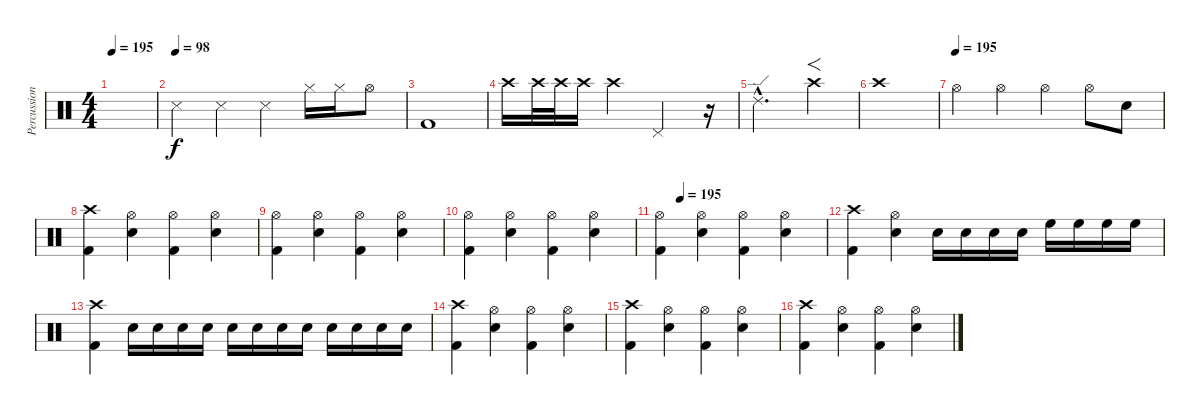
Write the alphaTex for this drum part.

\track ("Percussion" "Percussion") {instrument percussion}
\staff {score}
\articulation defaults
\ts (4 4)
\tempo 195
\clef neutral
\ks c
|
\tempo (98)
"Snare (side stick) 3".4 "Snare (side stick) 3".4 "Snare (side stick) 3".4 "Hi-Hat (closed)".16 "Hi-Hat (closed)".16 "Hi-Hat (open)".8 |
"Kick (hit) 2".1 |
"Crash high (hit)".16 "Crash high (hit)".32 "Crash high (hit)".32 "Crash high (hit)".16 "Crash high (hit)".4 "Pedal Hi-Hat (hit)".2 r.16 |
"Ride (edge) 2"{hac}.2{d} "Crash high (hit)"{tr (49 64)}.4{f} |
"Crash high (hit)".1 |
\tempo (195)
"Hi-Hat (open)".4 "Hi-Hat (open)".4 "Hi-Hat (open)".4 "Hi-Hat (open)".8 "Electric Snare (hit)".8 |
("Crash high (hit)" "Kick (hit) 2").4 ("Hi-Hat (open)" "Electric Snare (hit)").4 ("Hi-Hat (open)" "Kick (hit) 2").4 ("Hi-Hat (open)" "Electric Snare (hit)").4 |
("Hi-Hat (open)" "Kick (hit) 2").4 ("Hi-Hat (open)" "Electric Snare (hit)").4 ("Hi-Hat (open)" "Kick (hit) 2").4 ("Hi-Hat (open)" "Electric Snare (hit)").4 |
("Hi-Hat (open)" "Kick (hit) 2").4 ("Hi-Hat (open)" "Electric Snare (hit)").4 ("Hi-Hat (open)" "Kick (hit) 2").4 ("Hi-Hat (open)" "Electric Snare (hit)").4 |
\tempo (195 0.125)
("Hi-Hat (open)" "Kick (hit) 2").4 ("Hi-Hat (open)" "Electric Snare (hit)").4 ("Hi-Hat (open)" "Kick (hit) 2").4 ("Hi-Hat (open)" "Electric Snare (hit)").4 |
("Crash high (hit)" "Kick (hit) 2").4 ("Hi-Hat (open)" "Electric Snare (hit)").4 "Electric Snare (hit)".16 "Electric Snare (hit)".16 "Electric Snare (hit)".16 "Electric Snare (hit)".16 "High Floor Tom (hit)".16 "High Floor Tom (hit)".16 "High Floor Tom (hit)".16 "High Floor Tom (hit)".16 |
("Crash high (hit)" "Kick (hit) 2").4 "Electric Snare (hit)".16 "Electric Snare (hit)".16 "Electric Snare (hit)".16 "Electric Snare (hit)".16 "Electric Snare (hit)".16 "Electric Snare (hit)".16 "Electric Snare (hit)".16 "Electric Snare (hit)".16 "Electric Snare (hit)".16 "Electric Snare (hit)".16 "Electric Snare (hit)".16 "Electric Snare (hit)".16 |
("Crash high (hit)" "Kick (hit) 2").4 ("Hi-Hat (open)" "Electric Snare (hit)").4 ("Hi-Hat (open)" "Kick (hit) 2").4 ("Hi-Hat (open)" "Electric Snare (hit)").4 |
("Crash high (hit)" "Kick (hit) 2").4 ("Hi-Hat (open)" "Electric Snare (hit)").4 ("Hi-Hat (open)" "Kick (hit) 2").4 ("Hi-Hat (open)" "Electric Snare (hit)").4 |
("Crash high (hit)" "Kick (hit) 2").4 ("Hi-Hat (open)" "Electric Snare (hit)").4 ("Hi-Hat (open)" "Kick (hit) 2").4 ("Hi-Hat (open)" "Electric Snare (hit)").4
